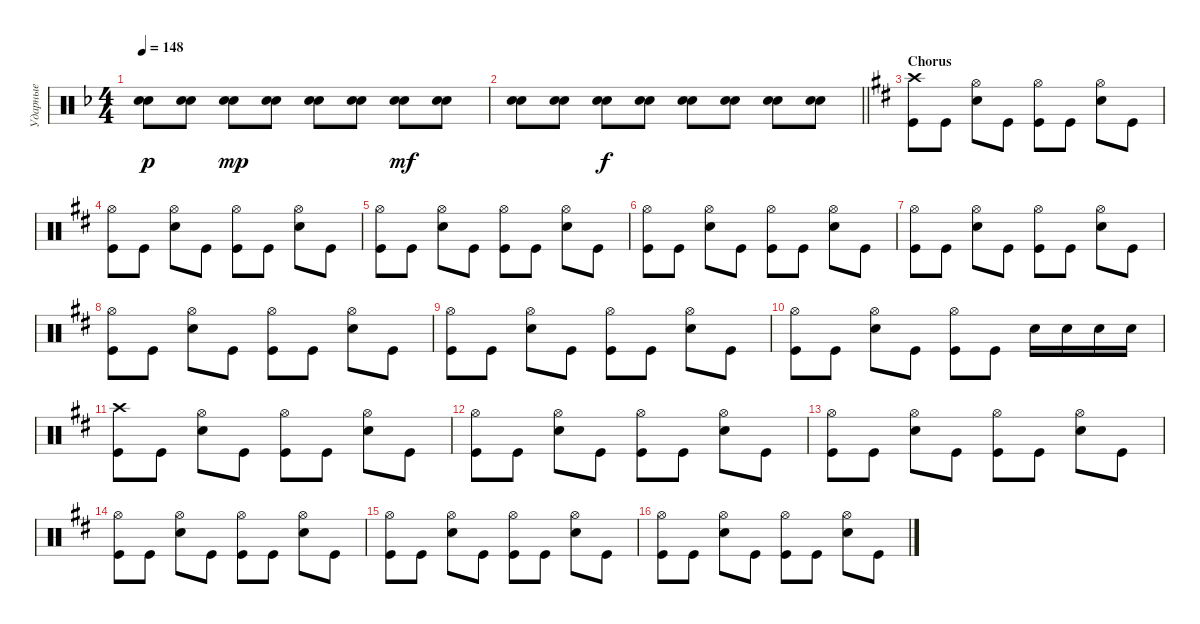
\track ("Ударные" "Ударные") {instrument percussion}
\staff {score}
\articulation defaults
\ts (4 4)
\tempo 148
\clef neutral
\ks dminor
("Snare (hit) 2" "Snare (hit) 2").8{bd 120 dy p} ("Snare (hit) 2" "Snare (hit) 2").8{bd 120} ("Snare (hit) 2" "Snare (hit) 2").8{bd 120 dy mp} ("Snare (hit) 2" "Snare (hit) 2").8{bd 120} ("Snare (hit) 2" "Snare (hit) 2").8{bd 120} ("Snare (hit) 2" "Snare (hit) 2").8{bd 120} ("Snare (hit) 2" "Snare (hit) 2").8{bd 120 dy mf} ("Snare (hit) 2" "Snare (hit) 2").8{bd 120} |
\barLineRight lightlight
("Snare (hit) 2" "Snare (hit) 2").8{bd 120} ("Snare (hit) 2" "Snare (hit) 2").8{bd 120} ("Snare (hit) 2" "Snare (hit) 2").8{bd 120 dy f} ("Snare (hit) 2" "Snare (hit) 2").8{bd 120} ("Snare (hit) 2" "Snare (hit) 2").8{bd 120} ("Snare (hit) 2" "Snare (hit) 2").8{bd 120} ("Snare (hit) 2" "Snare (hit) 2").8{bd 120} ("Snare (hit) 2" "Snare (hit) 2").8{bd 120} |
\section ("" "Chorus")
\ks bminor
("Crash high (hit)" "Kick (hit)").8 "Kick (hit)".8 ("Snare (hit) 2" "Hi-Hat (open)").8 "Kick (hit)".8 ("Kick (hit)" "Hi-Hat (open)").8 "Kick (hit)".8 ("Snare (hit) 2" "Hi-Hat (open)").8 "Kick (hit)".8 |
("Hi-Hat (open)" "Kick (hit)").8 "Kick (hit)".8 ("Snare (hit) 2" "Hi-Hat (open)").8 "Kick (hit)".8 ("Kick (hit)" "Hi-Hat (open)").8 "Kick (hit)".8 ("Snare (hit) 2" "Hi-Hat (open)").8 "Kick (hit)".8 |
("Hi-Hat (open)" "Kick (hit)").8 "Kick (hit)".8 ("Snare (hit) 2" "Hi-Hat (open)").8 "Kick (hit)".8 ("Kick (hit)" "Hi-Hat (open)").8 "Kick (hit)".8 ("Snare (hit) 2" "Hi-Hat (open)").8 "Kick (hit)".8 |
("Hi-Hat (open)" "Kick (hit)").8 "Kick (hit)".8 ("Snare (hit) 2" "Hi-Hat (open)").8 "Kick (hit)".8 ("Kick (hit)" "Hi-Hat (open)").8 "Kick (hit)".8 ("Snare (hit) 2" "Hi-Hat (open)").8 "Kick (hit)".8 |
("Hi-Hat (open)" "Kick (hit)").8 "Kick (hit)".8 ("Snare (hit) 2" "Hi-Hat (open)").8 "Kick (hit)".8 ("Kick (hit)" "Hi-Hat (open)").8 "Kick (hit)".8 ("Snare (hit) 2" "Hi-Hat (open)").8 "Kick (hit)".8 |
("Hi-Hat (open)" "Kick (hit)").8 "Kick (hit)".8 ("Snare (hit) 2" "Hi-Hat (open)").8 "Kick (hit)".8 ("Kick (hit)" "Hi-Hat (open)").8 "Kick (hit)".8 ("Snare (hit) 2" "Hi-Hat (open)").8 "Kick (hit)".8 |
("Hi-Hat (open)" "Kick (hit)").8 "Kick (hit)".8 ("Snare (hit) 2" "Hi-Hat (open)").8 "Kick (hit)".8 ("Kick (hit)" "Hi-Hat (open)").8 "Kick (hit)".8 ("Snare (hit) 2" "Hi-Hat (open)").8 "Kick (hit)".8 |
("Hi-Hat (open)" "Kick (hit)").8 "Kick (hit)".8 ("Snare (hit) 2" "Hi-Hat (open)").8 "Kick (hit)".8 ("Kick (hit)" "Hi-Hat (open)").8 "Kick (hit)".8 "Snare (hit) 2".16 "Snare (hit) 2".16 "Snare (hit) 2".16 "Snare (hit) 2".16 |
("Crash high (hit)" "Kick (hit)").8 "Kick (hit)".8 ("Snare (hit) 2" "Hi-Hat (open)").8 "Kick (hit)".8 ("Kick (hit)" "Hi-Hat (open)").8 "Kick (hit)".8 ("Snare (hit) 2" "Hi-Hat (open)").8 "Kick (hit)".8 |
("Hi-Hat (open)" "Kick (hit)").8 "Kick (hit)".8 ("Snare (hit) 2" "Hi-Hat (open)").8 "Kick (hit)".8 ("Kick (hit)" "Hi-Hat (open)").8 "Kick (hit)".8 ("Snare (hit) 2" "Hi-Hat (open)").8 "Kick (hit)".8 |
("Hi-Hat (open)" "Kick (hit)").8 "Kick (hit)".8 ("Snare (hit) 2" "Hi-Hat (open)").8 "Kick (hit)".8 ("Kick (hit)" "Hi-Hat (open)").8 "Kick (hit)".8 ("Snare (hit) 2" "Hi-Hat (open)").8 "Kick (hit)".8 |
("Hi-Hat (open)" "Kick (hit)").8 "Kick (hit)".8 ("Snare (hit) 2" "Hi-Hat (open)").8 "Kick (hit)".8 ("Kick (hit)" "Hi-Hat (open)").8 "Kick (hit)".8 ("Snare (hit) 2" "Hi-Hat (open)").8 "Kick (hit)".8 |
("Hi-Hat (open)" "Kick (hit)").8 "Kick (hit)".8 ("Snare (hit) 2" "Hi-Hat (open)").8 "Kick (hit)".8 ("Kick (hit)" "Hi-Hat (open)").8 "Kick (hit)".8 ("Snare (hit) 2" "Hi-Hat (open)").8 "Kick (hit)".8 |
("Hi-Hat (open)" "Kick (hit)").8 "Kick (hit)".8 ("Snare (hit) 2" "Hi-Hat (open)").8 "Kick (hit)".8 ("Kick (hit)" "Hi-Hat (open)").8 "Kick (hit)".8 ("Snare (hit) 2" "Hi-Hat (open)").8 "Kick (hit)".8
